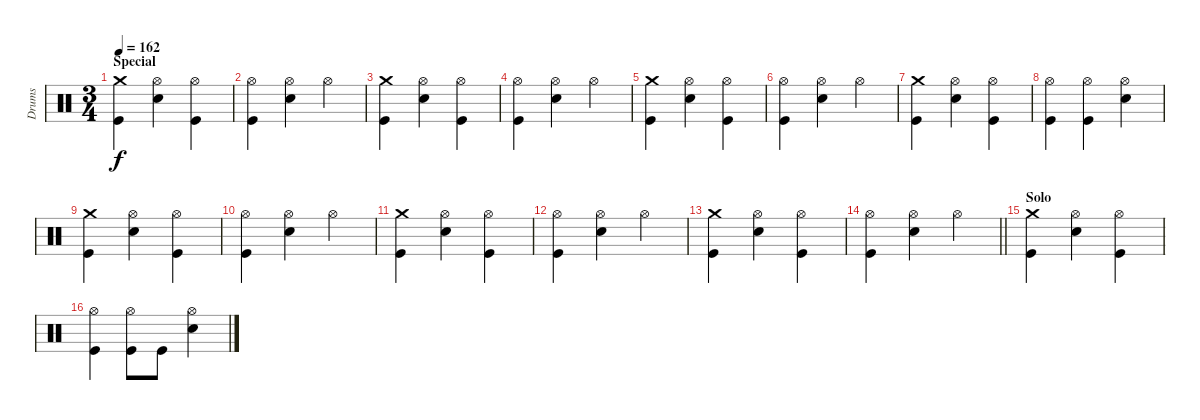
\track ("Drums" "Drums") {instrument percussion}
\staff {score}
\articulation defaults
\ts (3 4)
\section ("" "Special")
\tempo 162
\clef neutral
\ks c
("Crash medium (hit)" "Kick (hit)").4{dy f} ("Hi-Hat (open)" "Snare (hit) 2").4 ("Hi-Hat (open)" "Kick (hit)").4 |
("Hi-Hat (open)" "Kick (hit)").4 ("Hi-Hat (open)" "Snare (hit) 2").4 "Hi-Hat (open)".4 |
("Crash medium (hit)" "Kick (hit)").4 ("Hi-Hat (open)" "Snare (hit) 2").4 ("Hi-Hat (open)" "Kick (hit)").4 |
("Hi-Hat (open)" "Kick (hit)").4 ("Hi-Hat (open)" "Snare (hit) 2").4 "Hi-Hat (open)".4 |
("Crash medium (hit)" "Kick (hit)").4 ("Hi-Hat (open)" "Snare (hit) 2").4 ("Hi-Hat (open)" "Kick (hit)").4 |
("Hi-Hat (open)" "Kick (hit)").4 ("Hi-Hat (open)" "Snare (hit) 2").4 "Hi-Hat (open)".4 |
("Crash medium (hit)" "Kick (hit)").4 ("Hi-Hat (open)" "Snare (hit) 2").4 ("Hi-Hat (open)" "Kick (hit)").4 |
("Hi-Hat (open)" "Kick (hit)").4 ("Hi-Hat (open)" "Kick (hit)").4 ("Hi-Hat (open)" "Snare (hit) 2").4 |
("Crash medium (hit)" "Kick (hit)").4 ("Hi-Hat (open)" "Snare (hit) 2").4 ("Hi-Hat (open)" "Kick (hit)").4 |
("Hi-Hat (open)" "Kick (hit)").4 ("Hi-Hat (open)" "Snare (hit) 2").4 "Hi-Hat (open)".4 |
("Crash medium (hit)" "Kick (hit)").4 ("Hi-Hat (open)" "Snare (hit) 2").4 ("Hi-Hat (open)" "Kick (hit)").4 |
("Hi-Hat (open)" "Kick (hit)").4 ("Hi-Hat (open)" "Snare (hit) 2").4 "Hi-Hat (open)".4 |
("Crash medium (hit)" "Kick (hit)").4 ("Hi-Hat (open)" "Snare (hit) 2").4 ("Hi-Hat (open)" "Kick (hit)").4 |
\barLineRight lightlight
("Hi-Hat (open)" "Kick (hit)").4 ("Hi-Hat (open)" "Snare (hit) 2").4 "Hi-Hat (open)".4 |
\section ("" "Solo")
("Crash medium (hit)" "Kick (hit)").4 ("Hi-Hat (open)" "Snare (hit) 2").4 ("Hi-Hat (open)" "Kick (hit)").4 |
("Hi-Hat (open)" "Kick (hit)").4 ("Hi-Hat (open)" "Kick (hit)").8 "Kick (hit)".8 ("Hi-Hat (open)" "Snare (hit) 2").4
